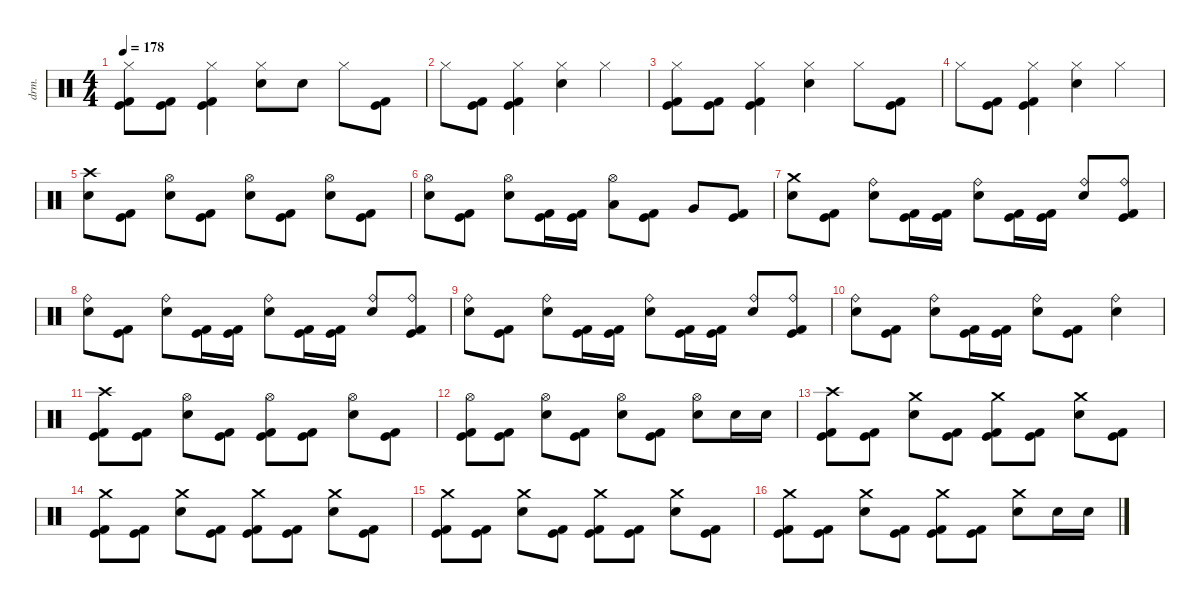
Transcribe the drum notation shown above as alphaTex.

\defaultSystemsLayout 4
\hideDynamics
\bracketExtendMode nobrackets
\otherSystemsTrackNameOrientation horizontal
\track ("Drums" "drm.") {instrument percussion}
\staff {score}
\articulation defaults
\ts (4 4)
\tempo 178
\clef neutral
\ks c
("Kick (hit)" "Kick (hit) 2" "Hi-Hat (closed)").8{dy ff beam Down} ("Kick (hit)" "Kick (hit) 2").8{beam Down} ("Kick (hit)" "Kick (hit) 2" "Hi-Hat (closed)").4{beam Down} ("Snare (hit) 2" "Hi-Hat (closed)").8{beam Down} "Snare (hit) 2".8{dy f beam Down} "Hi-Hat (closed)".8{dy ff beam Down} ("Kick (hit)" "Kick (hit) 2").8{beam Down} |
"Hi-Hat (closed)".8{beam Down} ("Kick (hit)" "Kick (hit) 2").8{beam Down} ("Kick (hit)" "Kick (hit) 2" "Hi-Hat (closed)").4{beam Down} ("Snare (hit) 2" "Hi-Hat (closed)").4{beam Down} "Hi-Hat (closed)".4{beam Down} |
("Kick (hit)" "Kick (hit) 2" "Hi-Hat (closed)").8{beam Down} ("Kick (hit)" "Kick (hit) 2").8{beam Down} ("Kick (hit)" "Kick (hit) 2" "Hi-Hat (closed)").4{beam Down} ("Snare (hit) 2" "Hi-Hat (closed)").4{beam Down} "Hi-Hat (closed)".8{beam Down} ("Kick (hit)" "Kick (hit) 2").8{beam Down} |
"Hi-Hat (closed)".8{beam Down} ("Kick (hit)" "Kick (hit) 2").8{beam Down} ("Kick (hit)" "Kick (hit) 2" "Hi-Hat (closed)").4{beam Down} ("Snare (hit) 2" "Hi-Hat (closed)").4{beam Down} "Hi-Hat (closed)".4{beam Down} |
("Snare (hit) 2" "Crash high (hit)").8{beam Down} ("Kick (hit)" "Kick (hit) 2").8{beam Down} ("Snare (hit) 2" "Hi-Hat (open)").8{beam Down} ("Kick (hit)" "Kick (hit) 2").8{beam Down} ("Snare (hit) 2" "Hi-Hat (open)").8{beam Down} ("Kick (hit)" "Kick (hit) 2").8{beam Down} ("Snare (hit) 2" "Hi-Hat (open)").8{beam Down} ("Kick (hit)" "Kick (hit) 2").8{beam Down} |
("Snare (hit) 2" "Hi-Hat (open)").8{beam Down} ("Kick (hit)" "Kick (hit) 2").8{beam Down} ("Snare (hit) 2" "Hi-Hat (open)").8{beam Down} ("Kick (hit)" "Kick (hit) 2").16{beam Down} ("Kick (hit)" "Kick (hit) 2").16{beam Down} ("Low Tom (hit)" "Hi-Hat (open)").8{beam Down} ("Kick (hit)" "Kick (hit) 2").8{beam Down} "Very Low Tom (hit)".8{beam Up} ("Kick (hit)" "Kick (hit) 2").8{beam Up} |
("Snare (hit) 2" "Crash medium (hit)").8{beam Down} ("Kick (hit)" "Kick (hit) 2").8{beam Down} ("Snare (hit) 2" "Ride (bell)").8{beam Down} ("Kick (hit)" "Kick (hit) 2").16{beam Down} ("Kick (hit)" "Kick (hit) 2").16{beam Down} ("Snare (hit) 2" "Ride (bell)").8{beam Down} ("Kick (hit)" "Kick (hit) 2").16{beam Down} ("Kick (hit)" "Kick (hit) 2").16{beam Down} ("Snare (hit) 2" "Ride (bell)").8{beam Up} ("Kick (hit)" "Kick (hit) 2" "Ride (bell)").8{beam Up} |
("Snare (hit) 2" "Ride (bell)").8{beam Down} ("Kick (hit)" "Kick (hit) 2").8{beam Down} ("Snare (hit) 2" "Ride (bell)").8{beam Down} ("Kick (hit)" "Kick (hit) 2").16{beam Down} ("Kick (hit)" "Kick (hit) 2").16{beam Down} ("Snare (hit) 2" "Ride (bell)").8{beam Down} ("Kick (hit)" "Kick (hit) 2").16{beam Down} ("Kick (hit)" "Kick (hit) 2").16{beam Down} ("Snare (hit) 2" "Ride (bell)").8{beam Up} ("Kick (hit)" "Kick (hit) 2" "Ride (bell)").8{beam Up} |
("Snare (hit) 2" "Ride (bell)").8{beam Down} ("Kick (hit)" "Kick (hit) 2").8{beam Down} ("Snare (hit) 2" "Ride (bell)").8{beam Down} ("Kick (hit)" "Kick (hit) 2").16{beam Down} ("Kick (hit)" "Kick (hit) 2").16{beam Down} ("Snare (hit) 2" "Ride (bell)").8{beam Down} ("Kick (hit)" "Kick (hit) 2").16{beam Down} ("Kick (hit)" "Kick (hit) 2").16{beam Down} ("Snare (hit) 2" "Ride (bell)").8{beam Up} ("Kick (hit)" "Kick (hit) 2" "Ride (bell)").8{beam Up} |
("Snare (hit) 2" "Ride (bell)").8{beam Down} ("Kick (hit)" "Kick (hit) 2").8{beam Down} ("Snare (hit) 2" "Ride (bell)").8{beam Down} ("Kick (hit)" "Kick (hit) 2").16{beam Down} ("Kick (hit)" "Kick (hit) 2").16{beam Down} ("Snare (hit) 2" "Ride (bell)").8{beam Down} ("Kick (hit)" "Kick (hit) 2").8{beam Down} ("Snare (hit) 2" "Ride (bell)").4{beam Down} |
("Kick (hit)" "Kick (hit) 2" "Crash high (hit)").8{beam Down} ("Kick (hit)" "Kick (hit) 2").8{beam Down} ("Snare (hit) 2" "Hi-Hat (open)").8{beam Down} ("Kick (hit)" "Kick (hit) 2").8{beam Down} ("Kick (hit)" "Kick (hit) 2" "Hi-Hat (open)").8{beam Down} ("Kick (hit)" "Kick (hit) 2").8{beam Down} ("Snare (hit) 2" "Hi-Hat (open)").8{beam Down} ("Kick (hit)" "Kick (hit) 2").8{beam Down} |
("Kick (hit)" "Kick (hit) 2" "Hi-Hat (open)").8{beam Down} ("Kick (hit)" "Kick (hit) 2").8{beam Down} ("Snare (hit) 2" "Hi-Hat (open)").8{beam Down} ("Kick (hit)" "Kick (hit) 2").8{beam Down} ("Snare (hit) 2" "Hi-Hat (open)").8{beam Down} ("Kick (hit)" "Kick (hit) 2").8{beam Down} ("Snare (hit) 2" "Hi-Hat (open)").8{beam Down} "Snare (hit) 2".16{dy f beam Down} "Snare (hit) 2".16{dy ff beam Down} |
("Kick (hit)" "Kick (hit) 2" "Crash high (hit)").8{beam Down} ("Kick (hit)" "Kick (hit) 2").8{beam Down} ("Snare (hit) 2" "Crash medium (hit)").8{beam Down} ("Kick (hit)" "Kick (hit) 2").8{beam Down} ("Kick (hit)" "Kick (hit) 2" "Crash medium (hit)").8{beam Down} ("Kick (hit)" "Kick (hit) 2").8{beam Down} ("Snare (hit) 2" "Crash medium (hit)").8{beam Down} ("Kick (hit)" "Kick (hit) 2").8{beam Down} |
("Kick (hit)" "Kick (hit) 2" "Crash medium (hit)").8{beam Down} ("Kick (hit)" "Kick (hit) 2").8{beam Down} ("Snare (hit) 2" "Crash medium (hit)").8{beam Down} ("Kick (hit)" "Kick (hit) 2").8{beam Down} ("Kick (hit)" "Kick (hit) 2" "Crash medium (hit)").8{beam Down} ("Kick (hit)" "Kick (hit) 2").8{beam Down} ("Snare (hit) 2" "Crash medium (hit)").8{beam Down} ("Kick (hit)" "Kick (hit) 2").8{beam Down} |
("Kick (hit)" "Kick (hit) 2" "Crash medium (hit)").8{beam Down} ("Kick (hit)" "Kick (hit) 2").8{beam Down} ("Snare (hit) 2" "Crash medium (hit)").8{beam Down} ("Kick (hit)" "Kick (hit) 2").8{beam Down} ("Kick (hit)" "Kick (hit) 2" "Crash medium (hit)").8{beam Down} ("Kick (hit)" "Kick (hit) 2").8{beam Down} ("Snare (hit) 2" "Crash medium (hit)").8{beam Down} ("Kick (hit)" "Kick (hit) 2").8{beam Down} |
("Kick (hit)" "Kick (hit) 2" "Crash medium (hit)").8{beam Down} ("Kick (hit)" "Kick (hit) 2").8{beam Down} ("Snare (hit) 2" "Crash medium (hit)").8{beam Down} ("Kick (hit)" "Kick (hit) 2").8{beam Down} ("Kick (hit)" "Kick (hit) 2" "Crash medium (hit)").8{beam Down} ("Kick (hit)" "Kick (hit) 2").8{beam Down} ("Snare (hit) 2" "Crash medium (hit)").8{beam Down} "Snare (hit) 2".16{dy f beam Down} "Snare (hit) 2".16{dy ff beam Down}
